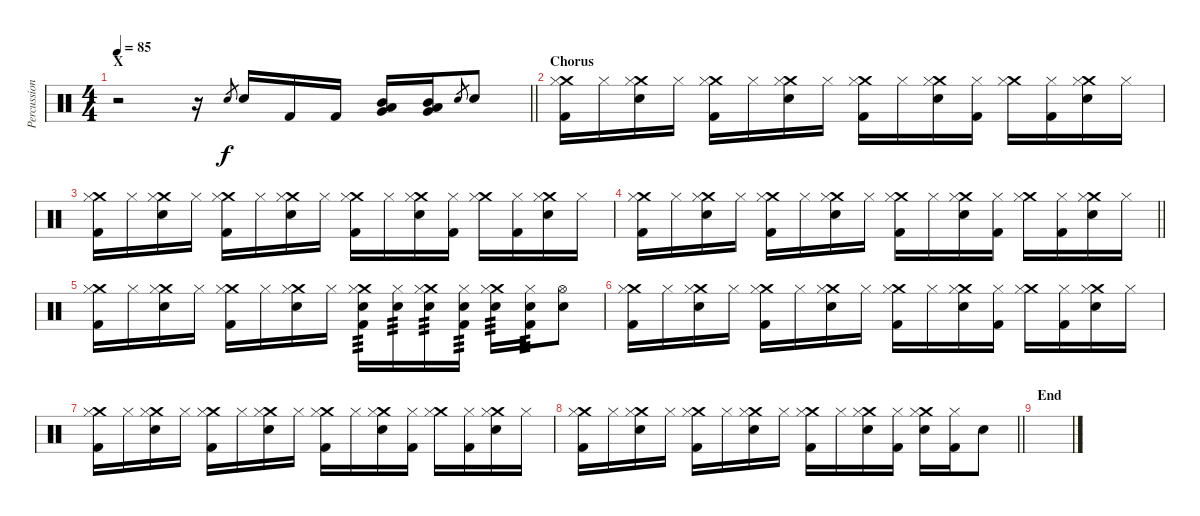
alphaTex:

\track ("Percussion" "Percussion") {instrument percussion}
\staff {score}
\articulation defaults
\ts (4 4)
\section ("" "X")
\tempo 85
\clef neutral
\barLineRight lightlight
\ks c
r.2{dy f} r.16 "Snare (hit) 2".8{gr} "Snare (hit) 2".16 "Kick (hit) 2".16 "Kick (hit) 2".16 ("Mid Tom (hit)" "Low Tom (hit)" "Very Low Tom (hit)").16 ("Mid Tom (hit)" "Low Tom (hit)" "Very Low Tom (hit)").16 "Snare (hit) 2".8{gr} "Snare (hit) 2".8 |
\section ("" "Chorus")
("Crash medium (hit)" "Hi-Hat (closed)" "Kick (hit) 2").16 "Hi-Hat (closed)".16 ("Crash medium (hit)" "Hi-Hat (closed)" "Snare (hit) 2").16 "Hi-Hat (closed)".16 ("Crash medium (hit)" "Hi-Hat (closed)" "Kick (hit) 2").16 "Hi-Hat (closed)".16 ("Crash medium (hit)" "Hi-Hat (closed)" "Snare (hit) 2").16 "Hi-Hat (closed)".16 ("Crash medium (hit)" "Hi-Hat (closed)" "Kick (hit) 2").16 "Hi-Hat (closed)".16 ("Crash medium (hit)" "Hi-Hat (closed)" "Snare (hit) 2").16 ("Hi-Hat (closed)" "Kick (hit) 2").16 ("Crash medium (hit)" "Hi-Hat (closed)").16 ("Hi-Hat (closed)" "Kick (hit) 2").16 ("Crash medium (hit)" "Hi-Hat (closed)" "Snare (hit) 2").16 "Hi-Hat (closed)".16 |
("Crash medium (hit)" "Hi-Hat (closed)" "Kick (hit) 2").16 "Hi-Hat (closed)".16 ("Crash medium (hit)" "Hi-Hat (closed)" "Snare (hit) 2").16 "Hi-Hat (closed)".16 ("Crash medium (hit)" "Hi-Hat (closed)" "Kick (hit) 2").16 "Hi-Hat (closed)".16 ("Crash medium (hit)" "Hi-Hat (closed)" "Snare (hit) 2").16 "Hi-Hat (closed)".16 ("Crash medium (hit)" "Hi-Hat (closed)" "Kick (hit) 2").16 "Hi-Hat (closed)".16 ("Crash medium (hit)" "Hi-Hat (closed)" "Snare (hit) 2").16 ("Hi-Hat (closed)" "Kick (hit) 2").16 ("Crash medium (hit)" "Hi-Hat (closed)").16 ("Hi-Hat (closed)" "Kick (hit) 2").16 ("Crash medium (hit)" "Hi-Hat (closed)" "Snare (hit) 2").16 "Hi-Hat (closed)".16 |
\barLineRight lightlight
("Crash medium (hit)" "Hi-Hat (closed)" "Kick (hit) 2").16 "Hi-Hat (closed)".16 ("Crash medium (hit)" "Hi-Hat (closed)" "Snare (hit) 2").16 "Hi-Hat (closed)".16 ("Crash medium (hit)" "Hi-Hat (closed)" "Kick (hit) 2").16 "Hi-Hat (closed)".16 ("Crash medium (hit)" "Hi-Hat (closed)" "Snare (hit) 2").16 "Hi-Hat (closed)".16 ("Crash medium (hit)" "Hi-Hat (closed)" "Kick (hit) 2").16 "Hi-Hat (closed)".16 ("Crash medium (hit)" "Hi-Hat (closed)" "Snare (hit) 2").16 ("Hi-Hat (closed)" "Kick (hit) 2").16 ("Crash medium (hit)" "Hi-Hat (closed)").16 ("Hi-Hat (closed)" "Kick (hit) 2").16 ("Crash medium (hit)" "Hi-Hat (closed)" "Snare (hit) 2").16 "Hi-Hat (closed)".16 |
("Crash medium (hit)" "Hi-Hat (closed)" "Kick (hit) 2").16 "Hi-Hat (closed)".16 ("Crash medium (hit)" "Hi-Hat (closed)" "Snare (hit) 2").16 "Hi-Hat (closed)".16 ("Crash medium (hit)" "Hi-Hat (closed)" "Kick (hit) 2").16 "Hi-Hat (closed)".16 ("Crash medium (hit)" "Hi-Hat (closed)" "Snare (hit) 2").16 "Hi-Hat (closed)".16 ("Crash medium (hit)" "Hi-Hat (closed)" "Snare (hit) 2" "Kick (hit) 2").16{tp 3} ("Hi-Hat (closed)" "Snare (hit) 2").16{tp 3} ("Crash medium (hit)" "Hi-Hat (closed)" "Snare (hit) 2").16{tp 3} ("Hi-Hat (closed)" "Snare (hit) 2" "Kick (hit) 2").16{tp 3} ("Crash medium (hit)" "Hi-Hat (closed)" "Snare (hit) 2").16{tp 3} ("Hi-Hat (closed)" "Snare (hit) 2" "Kick (hit) 2").16{tp 3} ("Hi-Hat (open)" "Snare (hit) 2").8 |
("Crash medium (hit)" "Hi-Hat (closed)" "Kick (hit) 2").16 "Hi-Hat (closed)".16 ("Crash medium (hit)" "Hi-Hat (closed)" "Snare (hit) 2").16 "Hi-Hat (closed)".16 ("Crash medium (hit)" "Hi-Hat (closed)" "Kick (hit) 2").16 "Hi-Hat (closed)".16 ("Crash medium (hit)" "Hi-Hat (closed)" "Snare (hit) 2").16 "Hi-Hat (closed)".16 ("Crash medium (hit)" "Hi-Hat (closed)" "Kick (hit) 2").16 "Hi-Hat (closed)".16 ("Crash medium (hit)" "Hi-Hat (closed)" "Snare (hit) 2").16 ("Hi-Hat (closed)" "Kick (hit) 2").16 ("Crash medium (hit)" "Hi-Hat (closed)").16 ("Hi-Hat (closed)" "Kick (hit) 2").16 ("Crash medium (hit)" "Hi-Hat (closed)" "Snare (hit) 2").16 "Hi-Hat (closed)".16 |
("Crash medium (hit)" "Hi-Hat (closed)" "Kick (hit) 2").16 "Hi-Hat (closed)".16 ("Crash medium (hit)" "Hi-Hat (closed)" "Snare (hit) 2").16 "Hi-Hat (closed)".16 ("Crash medium (hit)" "Hi-Hat (closed)" "Kick (hit) 2").16 "Hi-Hat (closed)".16 ("Crash medium (hit)" "Hi-Hat (closed)" "Snare (hit) 2").16 "Hi-Hat (closed)".16 ("Crash medium (hit)" "Hi-Hat (closed)" "Kick (hit) 2").16 "Hi-Hat (closed)".16 ("Crash medium (hit)" "Hi-Hat (closed)" "Snare (hit) 2").16 ("Hi-Hat (closed)" "Kick (hit) 2").16 ("Crash medium (hit)" "Hi-Hat (closed)").16 ("Hi-Hat (closed)" "Kick (hit) 2").16 ("Crash medium (hit)" "Hi-Hat (closed)" "Snare (hit) 2").16 "Hi-Hat (closed)".16 |
\barLineRight lightlight
("Crash medium (hit)" "Hi-Hat (closed)" "Kick (hit) 2").16 "Hi-Hat (closed)".16 ("Crash medium (hit)" "Hi-Hat (closed)" "Snare (hit) 2").16 "Hi-Hat (closed)".16 ("Crash medium (hit)" "Hi-Hat (closed)" "Kick (hit) 2").16 "Hi-Hat (closed)".16 ("Crash medium (hit)" "Hi-Hat (closed)" "Snare (hit) 2").16 "Hi-Hat (closed)".16 ("Crash medium (hit)" "Hi-Hat (closed)" "Kick (hit) 2").16 "Hi-Hat (closed)".16 ("Crash medium (hit)" "Hi-Hat (closed)" "Snare (hit) 2").16 ("Hi-Hat (closed)" "Kick (hit) 2").16 ("Crash medium (hit)" "Hi-Hat (closed)" "Snare (hit) 2").16 ("Hi-Hat (closed)" "Kick (hit) 2").16 "Snare (hit) 2".8 |
\section ("" "End")
